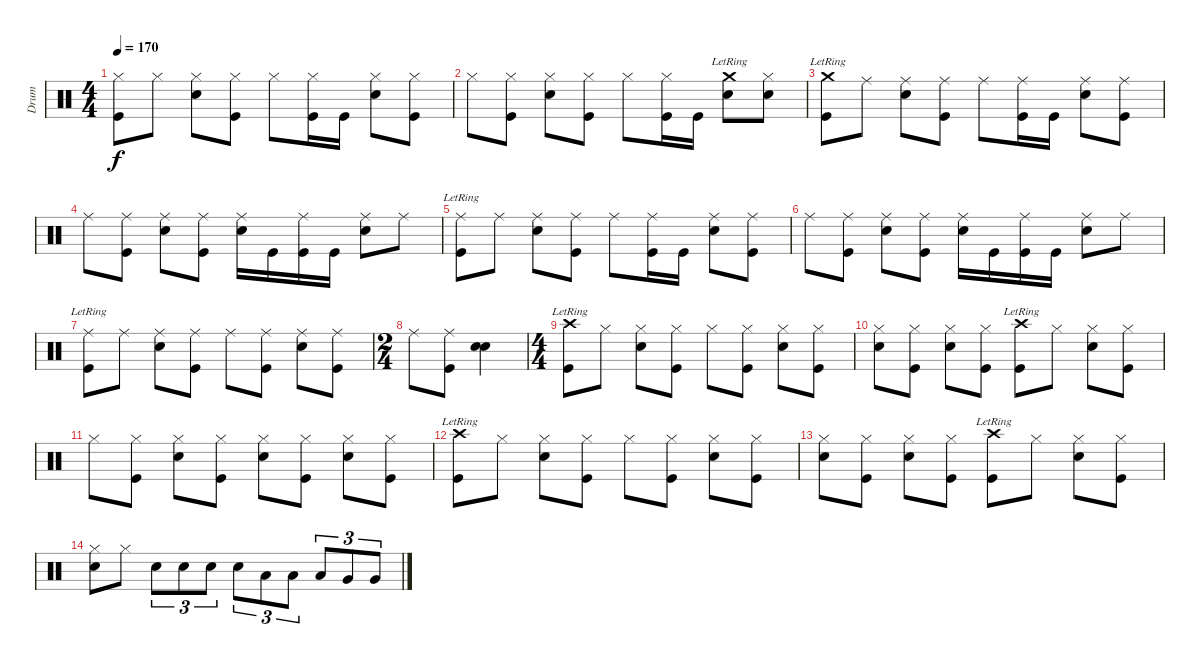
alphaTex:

\track ("Drum" "Drum") {instrument percussion}
\staff {score}
\articulation defaults
\ts (4 4)
\tempo 170
\clef neutral
\ks c
("Hi-Hat (closed)" "Kick (hit)").8{dy f} "Hi-Hat (closed)".8 ("Hi-Hat (closed)" "Snare (hit) 2").8 ("Hi-Hat (closed)" "Kick (hit)").8 "Hi-Hat (closed)".8 ("Hi-Hat (closed)" "Kick (hit)").16 "Kick (hit)".16 ("Hi-Hat (closed)" "Snare (hit) 2").8 ("Hi-Hat (closed)" "Kick (hit)").8 |
"Hi-Hat (closed)".8 ("Hi-Hat (closed)" "Kick (hit)").8 ("Hi-Hat (closed)" "Snare (hit) 2").8 ("Hi-Hat (closed)" "Kick (hit)").8 "Hi-Hat (closed)".8 ("Hi-Hat (closed)" "Kick (hit)").16 "Kick (hit)".16 ("Crash medium (hit)"{lr} "Snare (hit) 2").8 ("Hi-Hat (closed)" "Snare (hit) 2").8 |
("Crash medium (hit)"{lr} "Kick (hit)").8 "Ride (middle)".8 ("Ride (middle)" "Snare (hit) 2").8 ("Ride (middle)" "Kick (hit)").8 "Ride (middle)".8 ("Ride (middle)" "Kick (hit)").16 "Kick (hit)".16 ("Ride (middle)" "Snare (hit) 2").8 ("Ride (middle)" "Kick (hit)").8 |
"Ride (middle)".8 ("Ride (middle)" "Kick (hit)").8 ("Ride (middle)" "Snare (hit) 2").8 ("Ride (middle)" "Kick (hit)").8 ("Ride (middle)" "Snare (hit) 2").16 "Kick (hit)".16 ("Ride (middle)" "Kick (hit)").16 "Kick (hit)".16 ("Ride (middle)" "Snare (hit) 2").8 "Ride (middle)".8 |
("Ride (middle)"{lr} "Kick (hit)").8 "Ride (middle)".8 ("Ride (middle)" "Snare (hit) 2").8 ("Ride (middle)" "Kick (hit)").8 "Ride (middle)".8 ("Ride (middle)" "Kick (hit)").16 "Kick (hit)".16 ("Ride (middle)" "Snare (hit) 2").8 ("Ride (middle)" "Kick (hit)").8 |
"Ride (middle)".8 ("Ride (middle)" "Kick (hit)").8 ("Ride (middle)" "Snare (hit) 2").8 ("Ride (middle)" "Kick (hit)").8 ("Ride (middle)" "Snare (hit) 2").16 "Kick (hit)".16 ("Ride (middle)" "Kick (hit)").16 "Kick (hit)".16 ("Ride (middle)" "Snare (hit) 2").8 "Ride (middle)".8 |
("Ride (middle)"{lr} "Kick (hit)").8 "Ride (middle)".8 ("Ride (middle)" "Snare (hit) 2").8 ("Ride (middle)" "Kick (hit)").8 "Ride (middle)".8 ("Ride (middle)" "Kick (hit)").8 ("Ride (middle)" "Snare (hit) 2").8 ("Ride (middle)" "Kick (hit)").8 |
\ts (2 4)
"Ride (middle)".8 ("Ride (middle)" "Kick (hit)").8 ("Snare (hit) 2" "Snare (hit) 2").4 |
\ts (4 4)
("Crash high (hit)"{lr} "Kick (hit)").8 "Hi-Hat (closed)".8 ("Hi-Hat (closed)" "Snare (hit) 2").8 ("Hi-Hat (closed)" "Kick (hit)").8 "Hi-Hat (closed)".8 ("Hi-Hat (closed)" "Kick (hit)").8 ("Hi-Hat (closed)" "Snare (hit) 2").8 ("Hi-Hat (closed)" "Kick (hit)").8 |
("Hi-Hat (closed)" "Snare (hit) 2").8 ("Hi-Hat (closed)" "Kick (hit)").8 ("Hi-Hat (closed)" "Snare (hit) 2").8 ("Hi-Hat (closed)" "Kick (hit)").8 ("Crash high (hit)"{lr} "Kick (hit)").8 "Hi-Hat (closed)".8 ("Hi-Hat (closed)" "Snare (hit) 2").8 ("Hi-Hat (closed)" "Kick (hit)").8 |
"Hi-Hat (closed)".8 ("Hi-Hat (closed)" "Kick (hit)").8 ("Hi-Hat (closed)" "Snare (hit) 2").8 ("Hi-Hat (closed)" "Kick (hit)").8 ("Hi-Hat (closed)" "Snare (hit) 2").8 ("Hi-Hat (closed)" "Kick (hit)").8 ("Hi-Hat (closed)" "Snare (hit) 2").8 ("Hi-Hat (closed)" "Kick (hit)").8 |
("Crash high (hit)"{lr} "Kick (hit)").8 "Hi-Hat (closed)".8 ("Hi-Hat (closed)" "Snare (hit) 2").8 ("Hi-Hat (closed)" "Kick (hit)").8 "Hi-Hat (closed)".8 ("Hi-Hat (closed)" "Kick (hit)").8 ("Hi-Hat (closed)" "Snare (hit) 2").8 ("Hi-Hat (closed)" "Kick (hit)").8 |
("Hi-Hat (closed)" "Snare (hit) 2").8 ("Hi-Hat (closed)" "Kick (hit)").8 ("Hi-Hat (closed)" "Snare (hit) 2").8 ("Hi-Hat (closed)" "Kick (hit)").8 ("Crash high (hit)"{lr} "Kick (hit)").8 "Hi-Hat (closed)".8 ("Hi-Hat (closed)" "Snare (hit) 2").8 ("Hi-Hat (closed)" "Kick (hit)").8 |
("Hi-Hat (closed)" "Snare (hit) 2").8 "Hi-Hat (closed)".8 "Snare (hit) 2".8{tu (3 2)} "Snare (hit) 2".8{tu (3 2)} "Snare (hit) 2".8{tu (3 2)} "Snare (hit) 2".8{tu (3 2)} "Low Tom (hit)".8{tu (3 2)} "Low Tom (hit)".8{tu (3 2)} "Low Tom (hit)".8{tu (3 2)} "Very Low Tom (hit)".8{tu (3 2)} "Very Low Tom (hit)".8{tu (3 2)}
